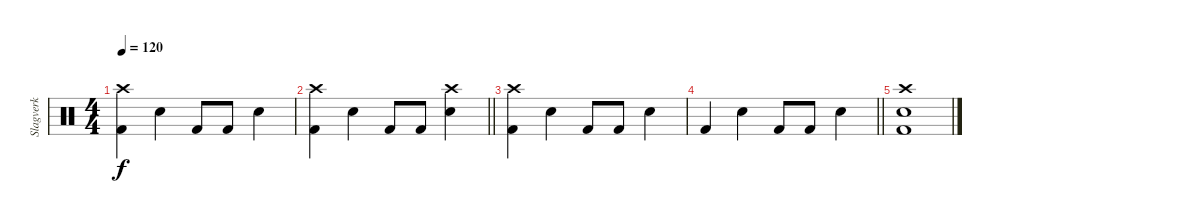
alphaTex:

\track ("Slagverk" "Slagverk") {instrument percussion}
\staff {score}
\articulation defaults
\ts (4 4)
\tempo 120
\clef neutral
\ks c
("Kick (hit) 2" "Crash high (hit)").4{dy f} "Snare (hit) 2".4 "Kick (hit) 2".8 "Kick (hit) 2".8 "Snare (hit) 2".4 |
\barLineRight lightlight
("Kick (hit) 2" "Crash high (hit)").4 "Snare (hit) 2".4 "Kick (hit) 2".8 "Kick (hit) 2".8 ("Snare (hit) 2" "Crash high (hit)").4 |
("Kick (hit) 2" "Crash high (hit)").4 "Snare (hit) 2".4 "Kick (hit) 2".8 "Kick (hit) 2".8 "Snare (hit) 2".4 |
\barLineRight lightlight "Kick (hit) 2".4 "Snare (hit) 2".4 "Kick (hit) 2".8 "Kick (hit) 2".8 "Snare (hit) 2".4
|
("Crash high (hit)" "Kick (hit) 2" "Snare (hit) 2").1
